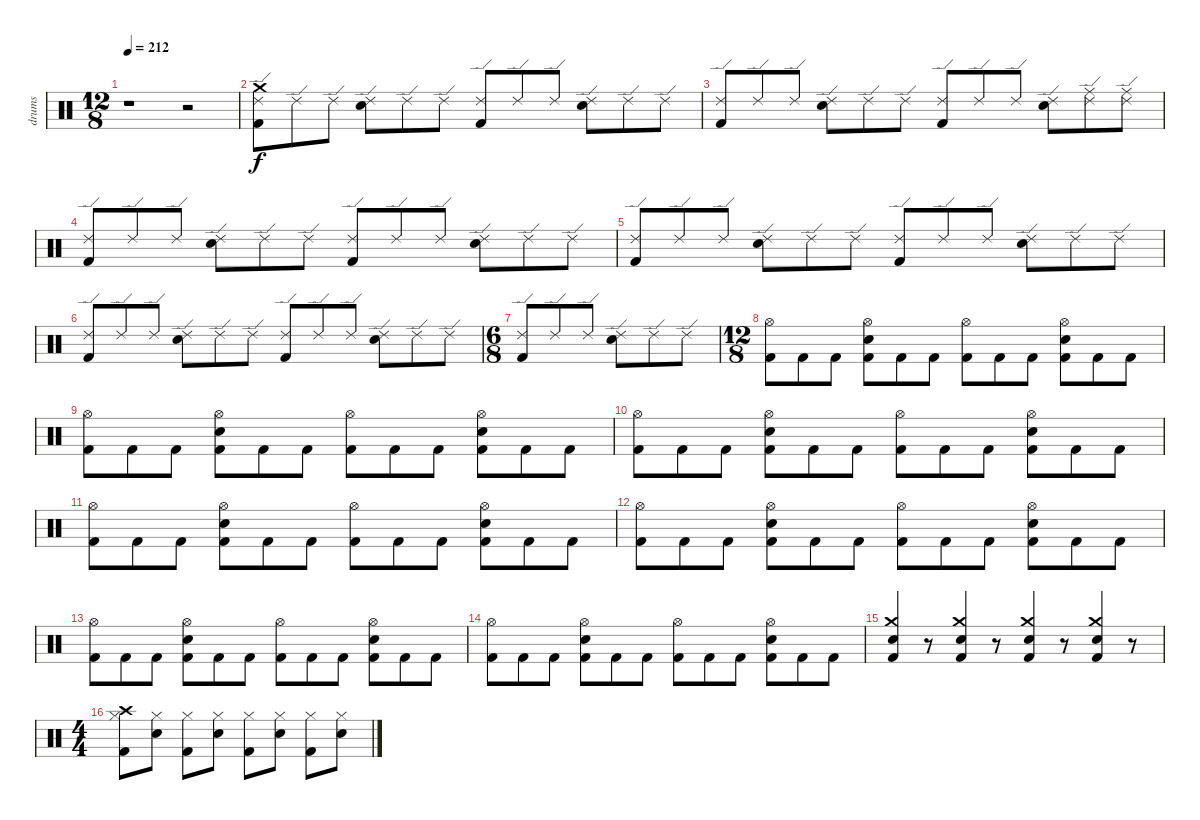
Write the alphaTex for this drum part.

\track ("drums" "drums") {instrument percussion}
\staff {score}
\articulation defaults
\ts (12 8)
\tempo 212
\clef neutral
\ks c
r.1{dy f} r.2 |
("Kick (hit) 2" "Ride (edge) 2" "Crash medium (hit)").8 "Ride (edge) 2".8 "Ride (edge) 2".8 ("Snare (hit) 2" "Ride (edge) 2").8 "Ride (edge) 2".8 "Ride (edge) 2".8 ("Kick (hit) 2" "Ride (edge) 2").8 "Ride (edge) 2".8 "Ride (edge) 2".8 ("Snare (hit) 2" "Ride (edge) 2").8 "Ride (edge) 2".8 "Ride (edge) 2".8 |
("Kick (hit) 2" "Ride (edge) 2").8 "Ride (edge) 2".8 "Ride (edge) 2".8 ("Snare (hit) 2" "Ride (edge) 2").8 "Ride (edge) 2".8 "Ride (edge) 2".8 ("Kick (hit) 2" "Ride (edge) 2").8 "Ride (edge) 2".8 "Ride (edge) 2".8 ("Snare (hit) 2" "Ride (edge) 2").8 ("Ride (edge) 2" "Ride (middle)").8 ("Ride (edge) 2" "Ride (middle)").8 |
("Kick (hit) 2" "Ride (edge) 2").8 "Ride (edge) 2".8 "Ride (edge) 2".8 ("Snare (hit) 2" "Ride (edge) 2").8 "Ride (edge) 2".8 "Ride (edge) 2".8 ("Kick (hit) 2" "Ride (edge) 2").8 "Ride (edge) 2".8 "Ride (edge) 2".8 ("Snare (hit) 2" "Ride (edge) 2").8 "Ride (edge) 2".8 "Ride (edge) 2".8 |
("Kick (hit) 2" "Ride (edge) 2").8 "Ride (edge) 2".8 "Ride (edge) 2".8 ("Snare (hit) 2" "Ride (edge) 2").8 "Ride (edge) 2".8 "Ride (edge) 2".8 ("Kick (hit) 2" "Ride (edge) 2").8 "Ride (edge) 2".8 "Ride (edge) 2".8 ("Snare (hit) 2" "Ride (edge) 2").8 "Ride (edge) 2".8 "Ride (edge) 2".8 |
("Kick (hit) 2" "Ride (edge) 2").8 "Ride (edge) 2".8 "Ride (edge) 2".8 ("Snare (hit) 2" "Ride (edge) 2").8 "Ride (edge) 2".8 "Ride (edge) 2".8 ("Kick (hit) 2" "Ride (edge) 2").8 "Ride (edge) 2".8 "Ride (edge) 2".8 ("Snare (hit) 2" "Ride (edge) 2").8 "Ride (edge) 2".8 "Ride (edge) 2".8 |
\ts (6 8)
("Kick (hit) 2" "Ride (edge) 2").8 "Ride (edge) 2".8 "Ride (edge) 2".8 ("Snare (hit) 2" "Ride (edge) 2").8 "Ride (edge) 2".8 "Ride (edge) 2".8 |
\ts (12 8)
("Kick (hit) 2" "Hi-Hat (open)").8 "Kick (hit) 2".8 "Kick (hit) 2".8 ("Kick (hit) 2" "Snare (hit) 2" "Hi-Hat (open)").8 "Kick (hit) 2".8 "Kick (hit) 2".8 ("Kick (hit) 2" "Hi-Hat (open)").8 "Kick (hit) 2".8 "Kick (hit) 2".8 ("Kick (hit) 2" "Snare (hit) 2" "Hi-Hat (open)").8 "Kick (hit) 2".8 "Kick (hit) 2".8 |
("Kick (hit) 2" "Hi-Hat (open)").8 "Kick (hit) 2".8 "Kick (hit) 2".8 ("Kick (hit) 2" "Snare (hit) 2" "Hi-Hat (open)").8 "Kick (hit) 2".8 "Kick (hit) 2".8 ("Kick (hit) 2" "Hi-Hat (open)").8 "Kick (hit) 2".8 "Kick (hit) 2".8 ("Kick (hit) 2" "Snare (hit) 2" "Hi-Hat (open)").8 "Kick (hit) 2".8 "Kick (hit) 2".8 |
("Kick (hit) 2" "Hi-Hat (open)").8 "Kick (hit) 2".8 "Kick (hit) 2".8 ("Kick (hit) 2" "Snare (hit) 2" "Hi-Hat (open)").8 "Kick (hit) 2".8 "Kick (hit) 2".8 ("Kick (hit) 2" "Hi-Hat (open)").8 "Kick (hit) 2".8 "Kick (hit) 2".8 ("Kick (hit) 2" "Snare (hit) 2" "Hi-Hat (open)").8 "Kick (hit) 2".8 "Kick (hit) 2".8 |
("Kick (hit) 2" "Hi-Hat (open)").8 "Kick (hit) 2".8 "Kick (hit) 2".8 ("Kick (hit) 2" "Snare (hit) 2" "Hi-Hat (open)").8 "Kick (hit) 2".8 "Kick (hit) 2".8 ("Kick (hit) 2" "Hi-Hat (open)").8 "Kick (hit) 2".8 "Kick (hit) 2".8 ("Kick (hit) 2" "Snare (hit) 2" "Hi-Hat (open)").8 "Kick (hit) 2".8 "Kick (hit) 2".8 |
("Kick (hit) 2" "Hi-Hat (open)").8 "Kick (hit) 2".8 "Kick (hit) 2".8 ("Kick (hit) 2" "Snare (hit) 2" "Hi-Hat (open)").8 "Kick (hit) 2".8 "Kick (hit) 2".8 ("Kick (hit) 2" "Hi-Hat (open)").8 "Kick (hit) 2".8 "Kick (hit) 2".8 ("Kick (hit) 2" "Snare (hit) 2" "Hi-Hat (open)").8 "Kick (hit) 2".8 "Kick (hit) 2".8 |
("Kick (hit) 2" "Hi-Hat (open)").8 "Kick (hit) 2".8 "Kick (hit) 2".8 ("Kick (hit) 2" "Snare (hit) 2" "Hi-Hat (open)").8 "Kick (hit) 2".8 "Kick (hit) 2".8 ("Kick (hit) 2" "Hi-Hat (open)").8 "Kick (hit) 2".8 "Kick (hit) 2".8 ("Kick (hit) 2" "Snare (hit) 2" "Hi-Hat (open)").8 "Kick (hit) 2".8 "Kick (hit) 2".8 |
("Kick (hit) 2" "Hi-Hat (open)").8 "Kick (hit) 2".8 "Kick (hit) 2".8 ("Kick (hit) 2" "Snare (hit) 2" "Hi-Hat (open)").8 "Kick (hit) 2".8 "Kick (hit) 2".8 ("Kick (hit) 2" "Hi-Hat (open)").8 "Kick (hit) 2".8 "Kick (hit) 2".8 ("Kick (hit) 2" "Snare (hit) 2" "Hi-Hat (open)").8 "Kick (hit) 2".8 "Kick (hit) 2".8 |
("Kick (hit) 2" "Snare (hit) 2" "Crash medium (hit)").4 r.8 ("Kick (hit) 2" "Snare (hit) 2" "Crash medium (hit)").4 r.8 ("Kick (hit) 2" "Snare (hit) 2" "Crash medium (hit)").4 r.8 ("Kick (hit) 2" "Snare (hit) 2" "Crash medium (hit)").4 r.8 |
\ts (4 4)
("Kick (hit) 2" "Hi-Hat (closed)" "Crash high (hit)").8 ("Snare (hit) 2" "Hi-Hat (closed)").8 ("Kick (hit) 2" "Hi-Hat (closed)").8 ("Snare (hit) 2" "Hi-Hat (closed)").8 ("Kick (hit) 2" "Hi-Hat (closed)").8 ("Snare (hit) 2" "Hi-Hat (closed)").8 ("Kick (hit) 2" "Hi-Hat (closed)").8 ("Snare (hit) 2" "Hi-Hat (closed)").8
